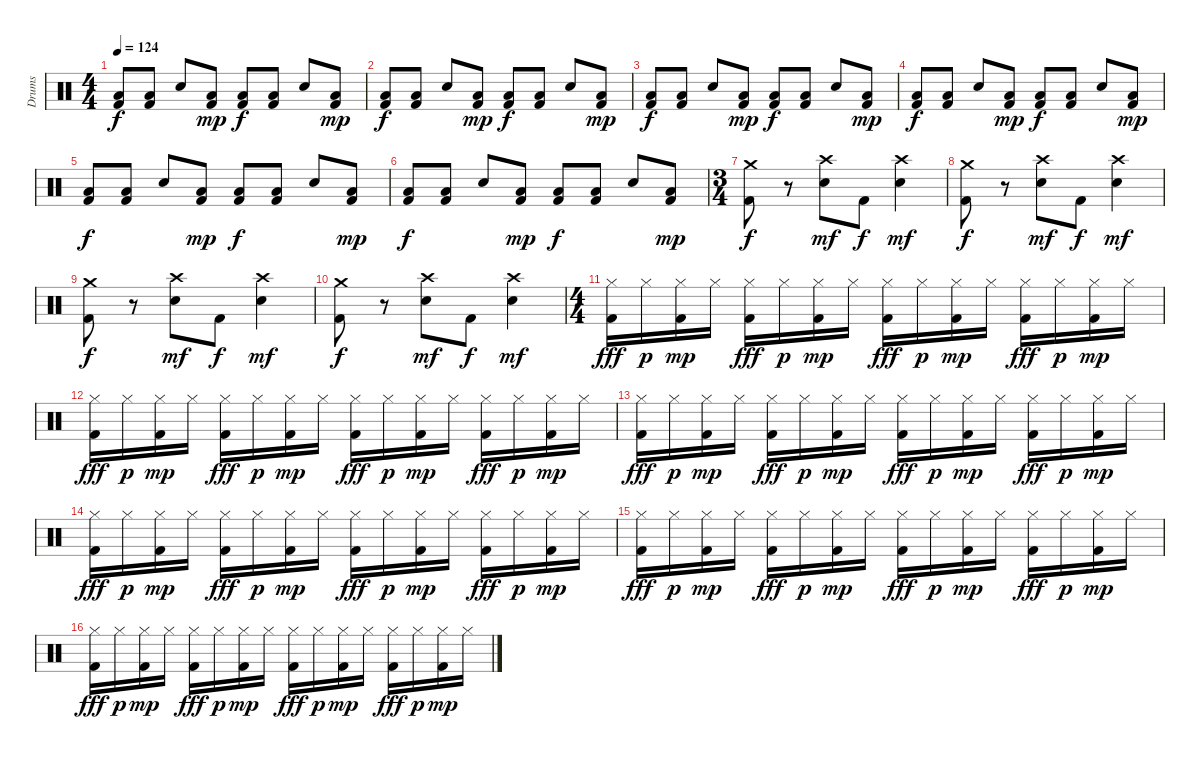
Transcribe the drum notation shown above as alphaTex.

\track ("Drums" "Drums") {instrument percussion}
\staff {score}
\articulation defaults
\ts (4 4)
\tempo 124
\clef neutral
\ks c
("Low Tom (hit)" "Kick (hit) 2").8{dy f} ("Low Tom (hit)" "Kick (hit) 2").8 "Snare (hit) 2".8 ("Low Tom (hit)" "Kick (hit) 2").8{dy mp} ("Low Tom (hit)" "Kick (hit) 2").8{dy f} ("Low Tom (hit)" "Kick (hit) 2").8 "Snare (hit) 2".8 ("Low Tom (hit)" "Kick (hit) 2").8{dy mp} |
("Low Tom (hit)" "Kick (hit) 2").8{dy f} ("Low Tom (hit)" "Kick (hit) 2").8 "Snare (hit) 2".8 ("Low Tom (hit)" "Kick (hit) 2").8{dy mp} ("Low Tom (hit)" "Kick (hit) 2").8{dy f} ("Low Tom (hit)" "Kick (hit) 2").8 "Snare (hit) 2".8 ("Low Tom (hit)" "Kick (hit) 2").8{dy mp} |
("Low Tom (hit)" "Kick (hit) 2").8{dy f} ("Low Tom (hit)" "Kick (hit) 2").8 "Snare (hit) 2".8 ("Low Tom (hit)" "Kick (hit) 2").8{dy mp} ("Low Tom (hit)" "Kick (hit) 2").8{dy f} ("Low Tom (hit)" "Kick (hit) 2").8 "Snare (hit) 2".8 ("Low Tom (hit)" "Kick (hit) 2").8{dy mp} |
("Low Tom (hit)" "Kick (hit) 2").8{dy f} ("Low Tom (hit)" "Kick (hit) 2").8 "Snare (hit) 2".8 ("Low Tom (hit)" "Kick (hit) 2").8{dy mp} ("Low Tom (hit)" "Kick (hit) 2").8{dy f} ("Low Tom (hit)" "Kick (hit) 2").8 "Snare (hit) 2".8 ("Low Tom (hit)" "Kick (hit) 2").8{dy mp} |
("Low Tom (hit)" "Kick (hit) 2").8{dy f} ("Low Tom (hit)" "Kick (hit) 2").8 "Snare (hit) 2".8 ("Low Tom (hit)" "Kick (hit) 2").8{dy mp} ("Low Tom (hit)" "Kick (hit) 2").8{dy f} ("Low Tom (hit)" "Kick (hit) 2").8 "Snare (hit) 2".8 ("Low Tom (hit)" "Kick (hit) 2").8{dy mp} |
("Low Tom (hit)" "Kick (hit) 2").8{dy f} ("Low Tom (hit)" "Kick (hit) 2").8 "Snare (hit) 2".8 ("Low Tom (hit)" "Kick (hit) 2").8{dy mp} ("Low Tom (hit)" "Kick (hit) 2").8{dy f} ("Low Tom (hit)" "Kick (hit) 2").8 "Snare (hit) 2".8 ("Low Tom (hit)" "Kick (hit) 2").8{dy mp} |
\ts (3 4)
("Crash medium (hit)" "Kick (hit) 2").8{dy f} r.8 ("Crash high (hit)" "Snare (hit) 2").8{dy mf} "Kick (hit) 2".8{dy f} ("Crash high (hit)" "Snare (hit) 2").4{dy mf} |
("Crash medium (hit)" "Kick (hit) 2").8{dy f} r.8 ("Crash high (hit)" "Snare (hit) 2").8{dy mf} "Kick (hit) 2".8{dy f} ("Crash high (hit)" "Snare (hit) 2").4{dy mf} |
("Crash medium (hit)" "Kick (hit) 2").8{dy f} r.8 ("Crash high (hit)" "Snare (hit) 2").8{dy mf} "Kick (hit) 2".8{dy f} ("Crash high (hit)" "Snare (hit) 2").4{dy mf} |
("Crash medium (hit)" "Kick (hit) 2").8{dy f} r.8 ("Crash high (hit)" "Snare (hit) 2").8{dy mf} "Kick (hit) 2".8{dy f} ("Crash high (hit)" "Snare (hit) 2").4{dy mf} |
\ts (4 4)
("Hi-Hat (closed)" "Kick (hit) 2").16{dy fff volume 11} "Hi-Hat (closed)".16{dy p} ("Hi-Hat (closed)" "Kick (hit) 2").16{dy mp} "Hi-Hat (closed)".16 ("Hi-Hat (closed)" "Kick (hit) 2").16{dy fff} "Hi-Hat (closed)".16{dy p} ("Hi-Hat (closed)" "Kick (hit) 2").16{dy mp} "Hi-Hat (closed)".16 ("Hi-Hat (closed)" "Kick (hit) 2").16{dy fff} "Hi-Hat (closed)".16{dy p} ("Hi-Hat (closed)" "Kick (hit) 2").16{dy mp} "Hi-Hat (closed)".16 ("Hi-Hat (closed)" "Kick (hit) 2").16{dy fff} "Hi-Hat (closed)".16{dy p} ("Hi-Hat (closed)" "Kick (hit) 2").16{dy mp} "Hi-Hat (closed)".16 |
("Hi-Hat (closed)" "Kick (hit) 2").16{dy fff volume 11} "Hi-Hat (closed)".16{dy p} ("Hi-Hat (closed)" "Kick (hit) 2").16{dy mp} "Hi-Hat (closed)".16 ("Hi-Hat (closed)" "Kick (hit) 2").16{dy fff} "Hi-Hat (closed)".16{dy p} ("Hi-Hat (closed)" "Kick (hit) 2").16{dy mp} "Hi-Hat (closed)".16 ("Hi-Hat (closed)" "Kick (hit) 2").16{dy fff} "Hi-Hat (closed)".16{dy p} ("Hi-Hat (closed)" "Kick (hit) 2").16{dy mp} "Hi-Hat (closed)".16 ("Hi-Hat (closed)" "Kick (hit) 2").16{dy fff} "Hi-Hat (closed)".16{dy p} ("Hi-Hat (closed)" "Kick (hit) 2").16{dy mp} "Hi-Hat (closed)".16 |
("Hi-Hat (closed)" "Kick (hit) 2").16{dy fff volume 11} "Hi-Hat (closed)".16{dy p} ("Hi-Hat (closed)" "Kick (hit) 2").16{dy mp} "Hi-Hat (closed)".16 ("Hi-Hat (closed)" "Kick (hit) 2").16{dy fff} "Hi-Hat (closed)".16{dy p} ("Hi-Hat (closed)" "Kick (hit) 2").16{dy mp} "Hi-Hat (closed)".16 ("Hi-Hat (closed)" "Kick (hit) 2").16{dy fff} "Hi-Hat (closed)".16{dy p} ("Hi-Hat (closed)" "Kick (hit) 2").16{dy mp} "Hi-Hat (closed)".16 ("Hi-Hat (closed)" "Kick (hit) 2").16{dy fff} "Hi-Hat (closed)".16{dy p} ("Hi-Hat (closed)" "Kick (hit) 2").16{dy mp} "Hi-Hat (closed)".16 |
("Hi-Hat (closed)" "Kick (hit) 2").16{dy fff volume 11} "Hi-Hat (closed)".16{dy p} ("Hi-Hat (closed)" "Kick (hit) 2").16{dy mp} "Hi-Hat (closed)".16 ("Hi-Hat (closed)" "Kick (hit) 2").16{dy fff} "Hi-Hat (closed)".16{dy p} ("Hi-Hat (closed)" "Kick (hit) 2").16{dy mp} "Hi-Hat (closed)".16 ("Hi-Hat (closed)" "Kick (hit) 2").16{dy fff} "Hi-Hat (closed)".16{dy p} ("Hi-Hat (closed)" "Kick (hit) 2").16{dy mp} "Hi-Hat (closed)".16 ("Hi-Hat (closed)" "Kick (hit) 2").16{dy fff} "Hi-Hat (closed)".16{dy p} ("Hi-Hat (closed)" "Kick (hit) 2").16{dy mp} "Hi-Hat (closed)".16 |
("Hi-Hat (closed)" "Kick (hit) 2").16{dy fff volume 11} "Hi-Hat (closed)".16{dy p} ("Hi-Hat (closed)" "Kick (hit) 2").16{dy mp} "Hi-Hat (closed)".16 ("Hi-Hat (closed)" "Kick (hit) 2").16{dy fff} "Hi-Hat (closed)".16{dy p} ("Hi-Hat (closed)" "Kick (hit) 2").16{dy mp} "Hi-Hat (closed)".16 ("Hi-Hat (closed)" "Kick (hit) 2").16{dy fff} "Hi-Hat (closed)".16{dy p} ("Hi-Hat (closed)" "Kick (hit) 2").16{dy mp} "Hi-Hat (closed)".16 ("Hi-Hat (closed)" "Kick (hit) 2").16{dy fff} "Hi-Hat (closed)".16{dy p} ("Hi-Hat (closed)" "Kick (hit) 2").16{dy mp} "Hi-Hat (closed)".16 |
("Hi-Hat (closed)" "Kick (hit) 2").16{dy fff volume 11} "Hi-Hat (closed)".16{dy p} ("Hi-Hat (closed)" "Kick (hit) 2").16{dy mp} "Hi-Hat (closed)".16 ("Hi-Hat (closed)" "Kick (hit) 2").16{dy fff} "Hi-Hat (closed)".16{dy p} ("Hi-Hat (closed)" "Kick (hit) 2").16{dy mp} "Hi-Hat (closed)".16 ("Hi-Hat (closed)" "Kick (hit) 2").16{dy fff} "Hi-Hat (closed)".16{dy p} ("Hi-Hat (closed)" "Kick (hit) 2").16{dy mp} "Hi-Hat (closed)".16 ("Hi-Hat (closed)" "Kick (hit) 2").16{dy fff} "Hi-Hat (closed)".16{dy p} ("Hi-Hat (closed)" "Kick (hit) 2").16{dy mp} "Hi-Hat (closed)".16
